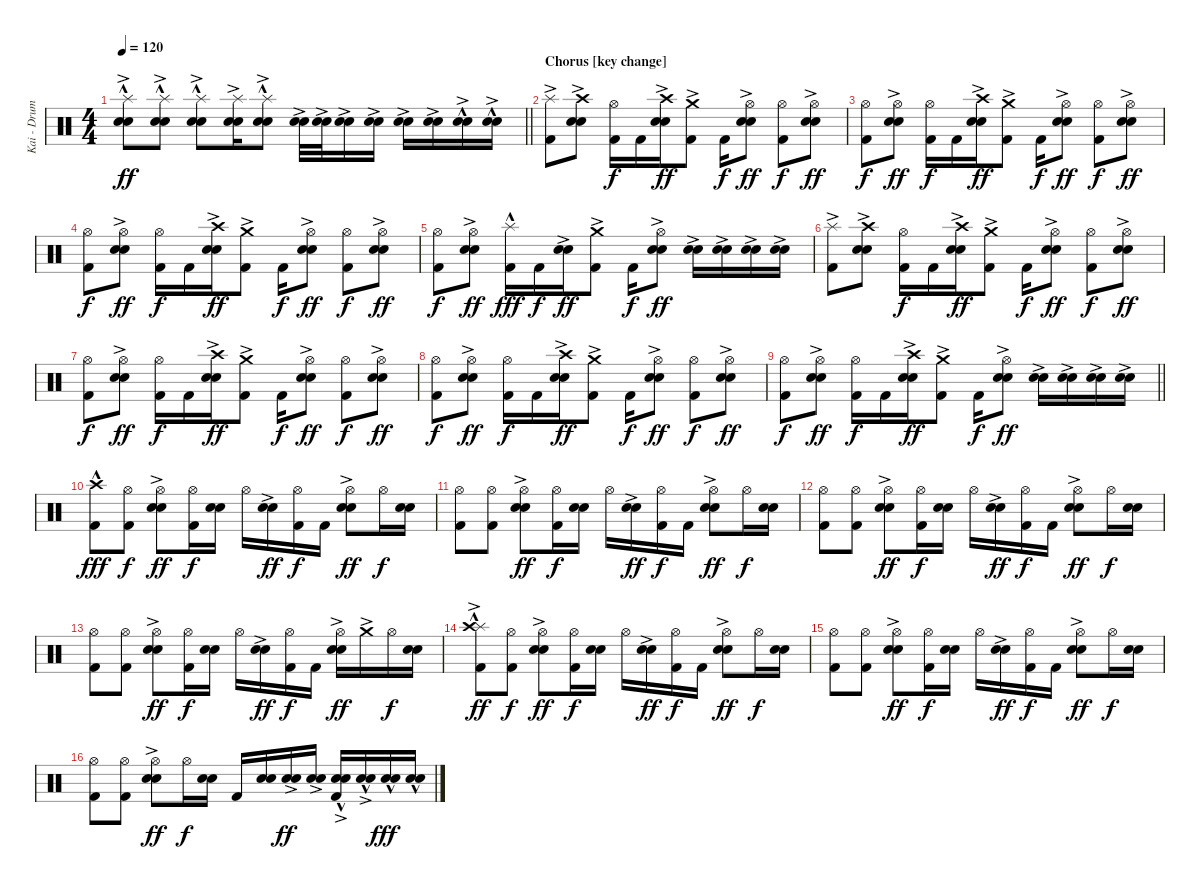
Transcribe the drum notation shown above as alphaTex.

\track ("Kai - Drums" "Kai - Drum") {instrument percussion}
\staff {score}
\articulation defaults
\ts (4 4)
\tempo 120
\clef neutral
\barLineRight lightlight
\ks c
("Splash (hit)"{hac} "Electric Snare (hit)"{ac} "Snare (hit) 2").8{dy ff} ("Splash (hit)"{hac} "Electric Snare (hit)"{ac} "Snare (hit) 2").8 ("Splash (hit)"{hac} "Electric Snare (hit)"{ac} "Snare (hit) 2").8 ("Splash (hit)" "Electric Snare (hit)"{ac} "Snare (hit) 2").16 ("Splash (hit)"{hac} "Electric Snare (hit)"{ac} "Snare (hit) 2").8 ("Electric Snare (hit)"{ac} "Snare (hit) 2").32 ("Electric Snare (hit)"{ac} "Snare (hit) 2").32 ("Electric Snare (hit)"{ac} "Snare (hit) 2").16 ("Electric Snare (hit)"{ac} "Snare (hit) 2").16 ("Electric Snare (hit)"{ac} "Snare (hit) 2"{ac}).16 ("Electric Snare (hit)"{ac} "Snare (hit) 2"{ac}).16 ("Electric Snare (hit)"{hac} "Snare (hit) 2"{ac}).16 ("Electric Snare (hit)"{hac} "Snare (hit) 2"{ac}).16 |
\section ("" "Chorus [key change]")
("Splash (hit)"{ac} "Kick (hit) 2").8 ("Crash high (hit)"{ac} "Electric Snare (hit)"{ac} "Snare (hit) 2"{ac}).8 ("Hi-Hat (open)" "Kick (hit) 2").16{dy f} "Kick (hit) 2".16 ("Crash high (hit)"{ac} "Electric Snare (hit)"{ac} "Snare (hit) 2"{ac}).16{dy ff} ("Crash medium (hit)"{ac} "Kick (hit) 2").8 "Kick (hit) 2".16{dy f} ("Hi-Hat (open)" "Electric Snare (hit)"{ac} "Snare (hit) 2"{ac}).8{dy ff} ("Hi-Hat (open)" "Kick (hit) 2").8{dy f} ("Hi-Hat (open)" "Electric Snare (hit)"{ac} "Snare (hit) 2"{ac}).8{dy ff} |
("Hi-Hat (open)" "Kick (hit) 2").8{dy f} ("Hi-Hat (open)" "Electric Snare (hit)"{ac} "Snare (hit) 2"{ac}).8{dy ff} ("Hi-Hat (open)" "Kick (hit) 2").16{dy f} "Kick (hit) 2".16 ("Crash high (hit)"{ac} "Electric Snare (hit)"{ac} "Snare (hit) 2"{ac}).16{dy ff} ("Crash medium (hit)"{ac} "Kick (hit) 2").8 "Kick (hit) 2".16{dy f} ("Hi-Hat (open)" "Electric Snare (hit)"{ac} "Snare (hit) 2"{ac}).8{dy ff} ("Hi-Hat (open)" "Kick (hit) 2").8{dy f} ("Hi-Hat (open)" "Electric Snare (hit)"{ac} "Snare (hit) 2"{ac}).8{dy ff} |
("Hi-Hat (open)" "Kick (hit) 2").8{dy f} ("Hi-Hat (open)" "Electric Snare (hit)"{ac} "Snare (hit) 2"{ac}).8{dy ff} ("Hi-Hat (open)" "Kick (hit) 2").16{dy f} "Kick (hit) 2".16 ("Crash high (hit)"{ac} "Electric Snare (hit)"{ac} "Snare (hit) 2"{ac}).16{dy ff} ("Crash medium (hit)"{ac} "Kick (hit) 2").8 "Kick (hit) 2".16{dy f} ("Hi-Hat (open)" "Electric Snare (hit)"{ac} "Snare (hit) 2"{ac}).8{dy ff} ("Hi-Hat (open)" "Kick (hit) 2").8{dy f} ("Hi-Hat (open)" "Electric Snare (hit)"{ac} "Snare (hit) 2"{ac}).8{dy ff} |
("Hi-Hat (open)" "Kick (hit) 2").8{dy f} ("Hi-Hat (open)" "Electric Snare (hit)"{ac} "Snare (hit) 2"{ac}).8{dy ff} ("Splash (hit)"{hac} "Kick (hit) 2").16{dy fff} "Kick (hit) 2".16{dy f} ("Electric Snare (hit)"{ac} "Snare (hit) 2"{ac}).16{dy ff} ("Crash medium (hit)"{ac} "Kick (hit) 2").8 "Kick (hit) 2".16{dy f} ("Hi-Hat (open)" "Electric Snare (hit)"{ac} "Snare (hit) 2"{ac}).8{dy ff} ("Electric Snare (hit)"{ac} "Snare (hit) 2"{ac}).16 ("Electric Snare (hit)"{ac} "Snare (hit) 2"{ac}).16 ("Electric Snare (hit)"{ac} "Snare (hit) 2"{ac}).16 ("Electric Snare (hit)"{ac} "Snare (hit) 2"{ac}).16 |
("Splash (hit)"{ac} "Kick (hit) 2").8 ("Crash high (hit)"{ac} "Electric Snare (hit)"{ac} "Snare (hit) 2"{ac}).8 ("Hi-Hat (open)" "Kick (hit) 2").16{dy f} "Kick (hit) 2".16 ("Crash high (hit)"{ac} "Electric Snare (hit)"{ac} "Snare (hit) 2"{ac}).16{dy ff} ("Crash medium (hit)"{ac} "Kick (hit) 2").8 "Kick (hit) 2".16{dy f} ("Hi-Hat (open)" "Electric Snare (hit)"{ac} "Snare (hit) 2"{ac}).8{dy ff} ("Hi-Hat (open)" "Kick (hit) 2").8{dy f} ("Hi-Hat (open)" "Electric Snare (hit)"{ac} "Snare (hit) 2"{ac}).8{dy ff} |
("Hi-Hat (open)" "Kick (hit) 2").8{dy f} ("Hi-Hat (open)" "Electric Snare (hit)"{ac} "Snare (hit) 2"{ac}).8{dy ff} ("Hi-Hat (open)" "Kick (hit) 2").16{dy f} "Kick (hit) 2".16 ("Crash high (hit)"{ac} "Electric Snare (hit)"{ac} "Snare (hit) 2"{ac}).16{dy ff} ("Crash medium (hit)"{ac} "Kick (hit) 2").8 "Kick (hit) 2".16{dy f} ("Hi-Hat (open)" "Electric Snare (hit)"{ac} "Snare (hit) 2"{ac}).8{dy ff} ("Hi-Hat (open)" "Kick (hit) 2").8{dy f} ("Hi-Hat (open)" "Electric Snare (hit)"{ac} "Snare (hit) 2"{ac}).8{dy ff} |
("Hi-Hat (open)" "Kick (hit) 2").8{dy f} ("Hi-Hat (open)" "Electric Snare (hit)"{ac} "Snare (hit) 2"{ac}).8{dy ff} ("Hi-Hat (open)" "Kick (hit) 2").16{dy f} "Kick (hit) 2".16 ("Crash high (hit)"{ac} "Electric Snare (hit)"{ac} "Snare (hit) 2"{ac}).16{dy ff} ("Crash medium (hit)"{ac} "Kick (hit) 2").8 "Kick (hit) 2".16{dy f} ("Hi-Hat (open)" "Electric Snare (hit)"{ac} "Snare (hit) 2"{ac}).8{dy ff} ("Hi-Hat (open)" "Kick (hit) 2").8{dy f} ("Hi-Hat (open)" "Electric Snare (hit)"{ac} "Snare (hit) 2"{ac}).8{dy ff} |
\barLineRight lightlight
("Hi-Hat (open)" "Kick (hit) 2").8{dy f} ("Hi-Hat (open)" "Electric Snare (hit)"{ac} "Snare (hit) 2"{ac}).8{dy ff} ("Hi-Hat (open)" "Kick (hit) 2").16{dy f} "Kick (hit) 2".16 ("Crash high (hit)"{ac} "Electric Snare (hit)"{ac} "Snare (hit) 2"{ac}).16{dy ff} ("Crash medium (hit)"{ac} "Kick (hit) 2").8 "Kick (hit) 2".16{dy f} ("Hi-Hat (open)" "Electric Snare (hit)"{ac} "Snare (hit) 2"{ac}).8{dy ff} ("Electric Snare (hit)"{ac} "Snare (hit) 2"{ac}).16 ("Electric Snare (hit)"{ac} "Snare (hit) 2"{ac}).16 ("Electric Snare (hit)"{ac} "Snare (hit) 2"{ac}).16 ("Electric Snare (hit)"{ac} "Snare (hit) 2"{ac}).16 |
\section ("" "")
("Crash high (hit)"{hac} "Kick (hit) 2").8{dy fff} ("Hi-Hat (open)" "Kick (hit) 2").8{dy f} ("Hi-Hat (open)" "Electric Snare (hit)"{ac} "Snare (hit) 2").8{dy ff} ("Hi-Hat (open)" "Kick (hit) 2").16{dy f} ("Electric Snare (hit)" "Snare (hit) 2").16 "Hi-Hat (open)".16 ("Electric Snare (hit)"{ac} "Snare (hit) 2").16{dy ff} ("Hi-Hat (open)" "Kick (hit) 2").16{dy f} "Kick (hit) 2".16 ("Hi-Hat (open)" "Electric Snare (hit)"{ac} "Snare (hit) 2").8{dy ff} "Hi-Hat (open)".16{dy f} ("Electric Snare (hit)" "Snare (hit) 2").16 |
("Hi-Hat (open)" "Kick (hit) 2").8 ("Hi-Hat (open)" "Kick (hit) 2").8 ("Hi-Hat (open)" "Electric Snare (hit)"{ac} "Snare (hit) 2").8{dy ff} ("Hi-Hat (open)" "Kick (hit) 2").16{dy f} ("Electric Snare (hit)" "Snare (hit) 2").16 "Hi-Hat (open)".16 ("Electric Snare (hit)"{ac} "Snare (hit) 2").16{dy ff} ("Hi-Hat (open)" "Kick (hit) 2").16{dy f} "Kick (hit) 2".16 ("Hi-Hat (open)" "Electric Snare (hit)"{ac} "Snare (hit) 2").8{dy ff} "Hi-Hat (open)".16{dy f} ("Electric Snare (hit)" "Snare (hit) 2").16 |
("Hi-Hat (open)" "Kick (hit) 2").8 ("Hi-Hat (open)" "Kick (hit) 2").8 ("Hi-Hat (open)" "Electric Snare (hit)"{ac} "Snare (hit) 2").8{dy ff} ("Hi-Hat (open)" "Kick (hit) 2").16{dy f} ("Electric Snare (hit)" "Snare (hit) 2").16 "Hi-Hat (open)".16 ("Electric Snare (hit)"{ac} "Snare (hit) 2").16{dy ff} ("Hi-Hat (open)" "Kick (hit) 2").16{dy f} "Kick (hit) 2".16 ("Hi-Hat (open)" "Electric Snare (hit)"{ac} "Snare (hit) 2").8{dy ff} "Hi-Hat (open)".16{dy f} ("Electric Snare (hit)" "Snare (hit) 2").16 |
("Hi-Hat (open)" "Kick (hit) 2").8 ("Hi-Hat (open)" "Kick (hit) 2").8 ("Hi-Hat (open)" "Electric Snare (hit)"{ac} "Snare (hit) 2").8{dy ff} ("Hi-Hat (open)" "Kick (hit) 2").16{dy f} ("Electric Snare (hit)" "Snare (hit) 2").16 "Hi-Hat (open)".16 ("Electric Snare (hit)"{ac} "Snare (hit) 2").16{dy ff} ("Hi-Hat (open)" "Kick (hit) 2").16{dy f} "Kick (hit) 2".16 ("Hi-Hat (open)" "Electric Snare (hit)"{ac} "Snare (hit) 2").16{dy ff} "Crash medium (hit)"{ac}.16 "Hi-Hat (open)".16{dy f} ("Electric Snare (hit)" "Snare (hit) 2").16 |
("Splash (hit)"{hac} "Crash high (hit)"{ac} "Kick (hit) 2").8{dy ff} ("Hi-Hat (open)" "Kick (hit) 2").8{dy f} ("Hi-Hat (open)" "Electric Snare (hit)"{ac} "Snare (hit) 2").8{dy ff} ("Hi-Hat (open)" "Kick (hit) 2").16{dy f} ("Electric Snare (hit)" "Snare (hit) 2").16 "Hi-Hat (open)".16 ("Electric Snare (hit)"{ac} "Snare (hit) 2").16{dy ff} ("Hi-Hat (open)" "Kick (hit) 2").16{dy f} "Kick (hit) 2".16 ("Hi-Hat (open)" "Electric Snare (hit)"{ac} "Snare (hit) 2").8{dy ff} "Hi-Hat (open)".16{dy f} ("Electric Snare (hit)" "Snare (hit) 2").16 |
("Hi-Hat (open)" "Kick (hit) 2").8 ("Hi-Hat (open)" "Kick (hit) 2").8 ("Hi-Hat (open)" "Electric Snare (hit)"{ac} "Snare (hit) 2").8{dy ff} ("Hi-Hat (open)" "Kick (hit) 2").16{dy f} ("Electric Snare (hit)" "Snare (hit) 2").16 "Hi-Hat (open)".16 ("Electric Snare (hit)"{ac} "Snare (hit) 2").16{dy ff} ("Hi-Hat (open)" "Kick (hit) 2").16{dy f} "Kick (hit) 2".16 ("Hi-Hat (open)" "Electric Snare (hit)"{ac} "Snare (hit) 2").8{dy ff} "Hi-Hat (open)".16{dy f} ("Electric Snare (hit)" "Snare (hit) 2").16 |
("Hi-Hat (open)" "Kick (hit) 2").8 ("Hi-Hat (open)" "Kick (hit) 2").8 ("Hi-Hat (open)" "Electric Snare (hit)"{ac} "Snare (hit) 2").8{dy ff} "Hi-Hat (open)".16{dy f} ("Electric Snare (hit)" "Snare (hit) 2").16 "Kick (hit) 2".16 ("Electric Snare (hit)" "Snare (hit) 2").16 ("Electric Snare (hit)"{ac} "Snare (hit) 2").16{dy ff} ("Electric Snare (hit)"{ac} "Snare (hit) 2").16 ("Electric Snare (hit)"{hac} "Snare (hit) 2"{ac} "Kick (hit) 2").16 ("Electric Snare (hit)"{hac} "Snare (hit) 2"{ac}).16 ("Electric Snare (hit)"{hac} "Snare (hit) 2"{hac}).16{dy fff} ("Electric Snare (hit)"{hac} "Snare (hit) 2"{hac}).16
